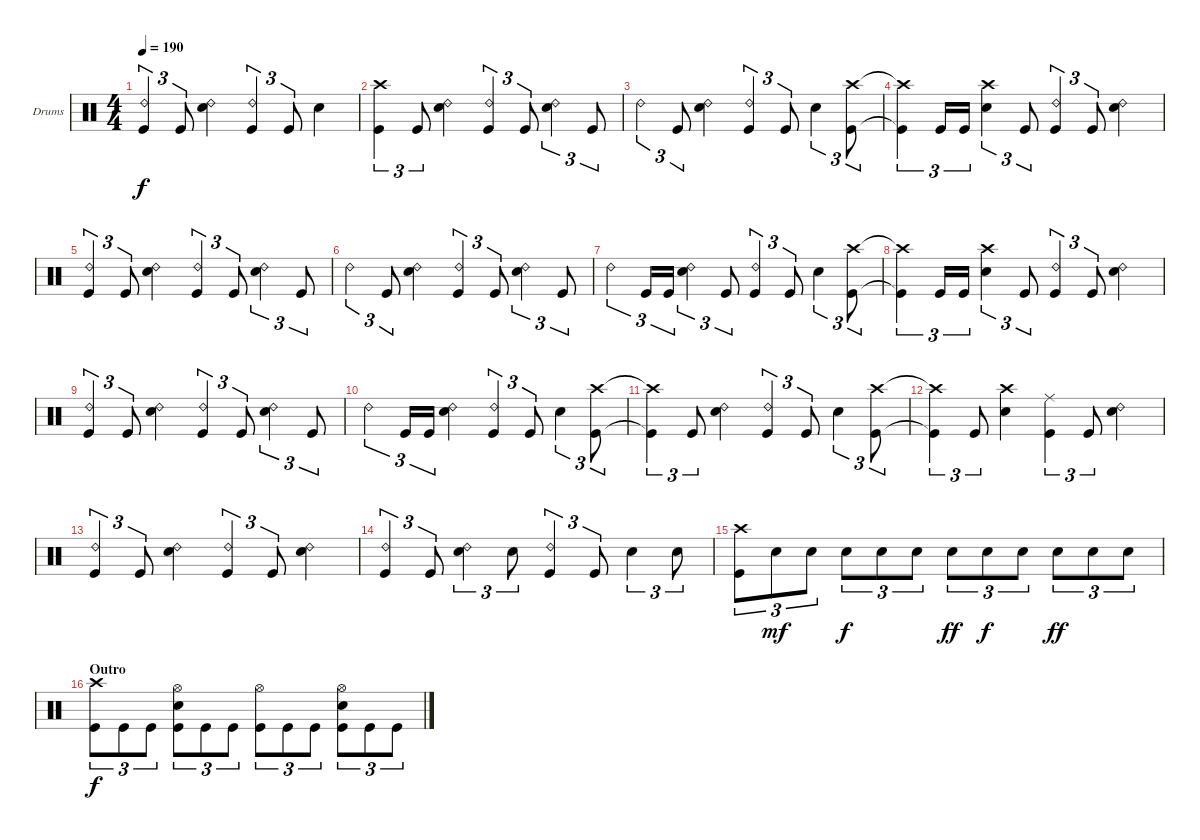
\bracketExtendMode groupsimilarinstruments
\firstSystemTrackNameOrientation horizontal
\otherSystemsTrackNameOrientation horizontal
\track ("Drums" "Drums") {instrument percussion}
\staff {score}
\articulation defaults
\ts (4 4)
\tempo 190
\clef neutral
\ks c
("Ride (bell) 2" "Kick (hit)").4{tu (3 2) dy f} "Kick (hit)".8{tu (3 2)} ("Snare (hit) 2" "Ride (bell) 2").4 ("Kick (hit)" "Ride (bell) 2").4{tu (3 2)} "Kick (hit)".8{tu (3 2)} "Snare (hit) 2".4 |
("Kick (hit)" "Crash high (hit)").4{tu (3 2)} "Kick (hit)".8{tu (3 2)} ("Snare (hit) 2" "Ride (bell) 2").4 ("Kick (hit)" "Ride (bell) 2").4{tu (3 2)} "Kick (hit)".8{tu (3 2)} ("Snare (hit) 2" "Ride (bell) 2").4{tu (3 2)} "Kick (hit)".8{tu (3 2)} |
"Ride (bell) 2".4{tu (3 2)} "Kick (hit)".8{tu (3 2)} ("Snare (hit) 2" "Ride (bell) 2").4 ("Kick (hit)" "Ride (bell) 2").4{tu (3 2)} "Kick (hit)".8{tu (3 2)} "Snare (hit) 2".4{tu (3 2)} ("Kick (hit)" "Crash high (hit)").8{tu (3 2)} |
("Kick (hit)"{t} "Crash high (hit)"{t}).4{tu (3 2)} "Kick (hit)".16{tu (3 2)} "Kick (hit)".16{tu (3 2)} ("Snare (hit) 2" "Crash high (hit)").4{tu (3 2)} "Kick (hit)".8{tu (3 2)} ("Kick (hit)" "Ride (bell) 2").4{tu (3 2)} "Kick (hit)".8{tu (3 2)} ("Snare (hit) 2" "Ride (bell) 2").4 |
("Kick (hit)" "Ride (bell) 2").4{tu (3 2)} "Kick (hit)".8{tu (3 2)} ("Snare (hit) 2" "Ride (bell) 2").4 ("Kick (hit)" "Ride (bell) 2").4{tu (3 2)} "Kick (hit)".8{tu (3 2)} ("Snare (hit) 2" "Ride (bell) 2").4{tu (3 2)} "Kick (hit)".8{tu (3 2)} |
"Ride (bell) 2".4{tu (3 2)} "Kick (hit)".8{tu (3 2)} ("Snare (hit) 2" "Ride (bell) 2").4 ("Kick (hit)" "Ride (bell) 2").4{tu (3 2)} "Kick (hit)".8{tu (3 2)} ("Snare (hit) 2" "Ride (bell) 2").4{tu (3 2)} "Kick (hit)".8{tu (3 2)} |
"Ride (bell) 2".4{tu (3 2)} "Kick (hit)".16{tu (3 2)} "Kick (hit)".16{tu (3 2)} ("Snare (hit) 2" "Ride (bell) 2").4{tu (3 2)} "Kick (hit)".8{tu (3 2)} ("Kick (hit)" "Ride (bell) 2").4{tu (3 2)} "Kick (hit)".8{tu (3 2)} "Snare (hit) 2".4{tu (3 2)} ("Kick (hit)" "Crash high (hit)").8{tu (3 2)} |
("Kick (hit)"{t} "Crash high (hit)"{t}).4{tu (3 2)} "Kick (hit)".16{tu (3 2)} "Kick (hit)".16{tu (3 2)} ("Snare (hit) 2" "Crash high (hit)").4{tu (3 2)} "Kick (hit)".8{tu (3 2)} ("Kick (hit)" "Ride (bell) 2").4{tu (3 2)} "Kick (hit)".8{tu (3 2)} ("Snare (hit) 2" "Ride (bell) 2").4 |
("Kick (hit)" "Ride (bell) 2").4{tu (3 2)} "Kick (hit)".8{tu (3 2)} ("Snare (hit) 2" "Ride (bell) 2").4 ("Kick (hit)" "Ride (bell) 2").4{tu (3 2)} "Kick (hit)".8{tu (3 2)} ("Snare (hit) 2" "Ride (bell) 2").4{tu (3 2)} "Kick (hit)".8{tu (3 2)} |
"Ride (bell) 2".4{tu (3 2)} "Kick (hit)".16{tu (3 2)} "Kick (hit)".16{tu (3 2)} ("Snare (hit) 2" "Ride (bell) 2").4 ("Kick (hit)" "Ride (bell) 2").4{tu (3 2)} "Kick (hit)".8{tu (3 2)} "Snare (hit) 2".4{tu (3 2)} ("Kick (hit)" "Crash high (hit)").8{tu (3 2)} |
("Kick (hit)"{t} "Crash high (hit)"{t}).4{tu (3 2)} "Kick (hit)".8{tu (3 2)} ("Snare (hit) 2" "Ride (bell) 2").4 ("Kick (hit)" "Ride (bell) 2").4{tu (3 2)} "Kick (hit)".8{tu (3 2)} "Snare (hit) 2".4{tu (3 2)} ("Kick (hit)" "Crash high (hit)").8{tu (3 2)} |
("Kick (hit)"{t} "Crash high (hit)"{t}).4{tu (3 2)} "Kick (hit)".8{tu (3 2)} ("Snare (hit) 2" "Crash high (hit)").4 ("Kick (hit)" "Ride (middle)").4{tu (3 2)} "Kick (hit)".8{tu (3 2)} ("Snare (hit) 2" "Ride (bell) 2").4 |
("Kick (hit)" "Ride (bell) 2").4{tu (3 2)} "Kick (hit)".8{tu (3 2)} ("Snare (hit) 2" "Ride (bell) 2").4 ("Kick (hit)" "Ride (bell) 2").4{tu (3 2)} "Kick (hit)".8{tu (3 2)} ("Snare (hit) 2" "Ride (bell) 2").4 |
("Ride (bell) 2" "Kick (hit)").4{tu (3 2)} "Kick (hit)".8{tu (3 2)} ("Snare (hit) 2" "Ride (bell) 2").4{tu (3 2)} "Snare (hit) 2".8{tu (3 2)} ("Ride (bell) 2" "Kick (hit)").4{tu (3 2)} "Kick (hit)".8{tu (3 2)} "Snare (hit) 2".4{tu (3 2)} "Snare (hit) 2".8{tu (3 2)} |
("Kick (hit)" "Crash high (hit)").8{tu (3 2)} "Snare (hit) 2".8{tu (3 2) dy mf} "Snare (hit) 2".8{tu (3 2)} "Snare (hit) 2".8{tu (3 2) dy f} "Snare (hit) 2".8{tu (3 2)} "Snare (hit) 2".8{tu (3 2)} "Snare (hit) 2".8{tu (3 2) dy ff} "Snare (hit) 2".8{tu (3 2) dy f} "Snare (hit) 2".8{tu (3 2)} "Snare (hit) 2".8{tu (3 2) dy ff} "Snare (hit) 2".8{tu (3 2)} "Snare (hit) 2".8{tu (3 2)} |
\section ("" "Outro")
("Kick (hit)" "Crash high (hit)").8{tu (3 2) dy f} "Kick (hit)".8{tu (3 2)} "Kick (hit)".8{tu (3 2)} ("Snare (hit) 2" "Kick (hit)" "Hi-Hat (open)").8{tu (3 2)} "Kick (hit)".8{tu (3 2)} "Kick (hit)".8{tu (3 2)} ("Kick (hit)" "Hi-Hat (open)").8{tu (3 2)} "Kick (hit)".8{tu (3 2)} "Kick (hit)".8{tu (3 2)} ("Snare (hit) 2" "Kick (hit)" "Hi-Hat (open)").8{tu (3 2)} "Kick (hit)".8{tu (3 2)} "Kick (hit)".8{tu (3 2)}
